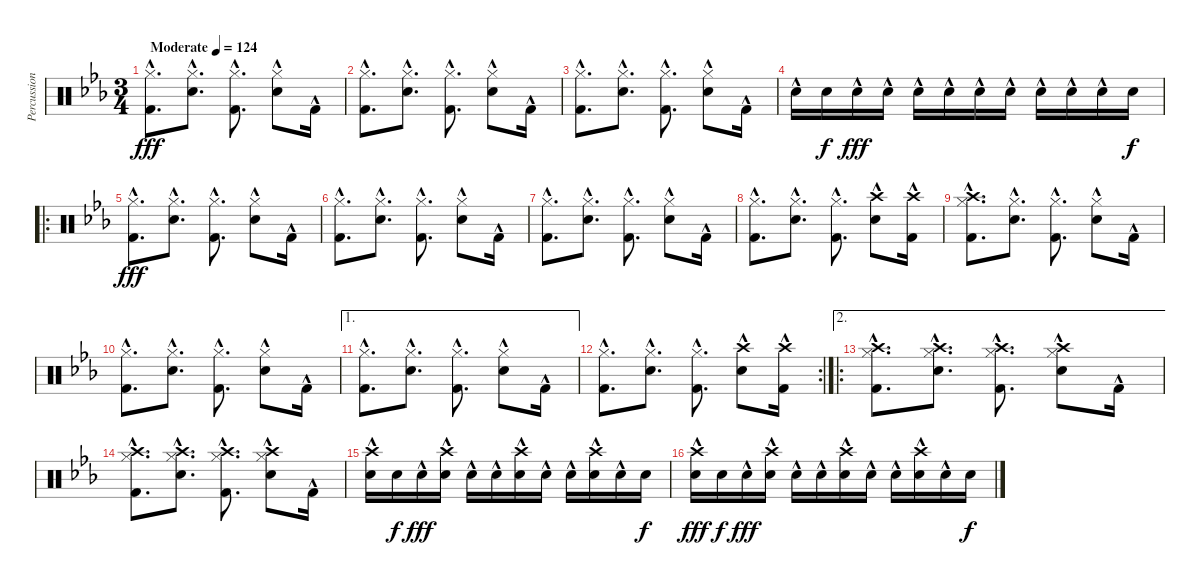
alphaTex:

\track ("Percussion" "Percussion") {instrument percussion}
\staff {score}
\articulation defaults
\ts (3 4)
\tempo (124 "Moderate")
\clef neutral
\ks cminor
("Hi-Hat (closed)" "Kick (hit) 2"{hac}).8{d dy fff} ("Hi-Hat (closed)" "Snare (hit) 2"{hac}).8{d} ("Hi-Hat (closed)" "Kick (hit) 2"{hac}).8{d} ("Hi-Hat (closed)" "Snare (hit) 2"{hac}).8 "Kick (hit) 2"{hac}.16 |
("Hi-Hat (closed)" "Kick (hit) 2"{hac}).8{d} ("Hi-Hat (closed)" "Snare (hit) 2"{hac}).8{d} ("Hi-Hat (closed)" "Kick (hit) 2"{hac}).8{d} ("Hi-Hat (closed)" "Snare (hit) 2"{hac}).8 "Kick (hit) 2"{hac}.16 |
("Hi-Hat (closed)" "Kick (hit) 2"{hac}).8{d} ("Hi-Hat (closed)" "Snare (hit) 2"{hac}).8{d} ("Hi-Hat (closed)" "Kick (hit) 2"{hac}).8{d} ("Hi-Hat (closed)" "Snare (hit) 2"{hac}).8 "Kick (hit) 2"{hac}.16 |
"Snare (hit) 2"{hac}.16 "Snare (hit) 2".16{dy f} "Snare (hit) 2"{hac}.16{dy fff} "Snare (hit) 2"{hac}.16 "Snare (hit) 2"{hac}.16 "Snare (hit) 2"{hac}.16 "Snare (hit) 2"{hac}.16 "Snare (hit) 2"{hac}.16 "Snare (hit) 2"{hac}.16 "Snare (hit) 2"{hac}.16 "Snare (hit) 2"{hac}.16 "Snare (hit) 2".16{dy f} |
\ro
("Hi-Hat (closed)" "Kick (hit) 2"{hac}).8{d dy fff} ("Hi-Hat (closed)" "Snare (hit) 2"{hac}).8{d} ("Hi-Hat (closed)" "Kick (hit) 2"{hac}).8{d} ("Hi-Hat (closed)" "Snare (hit) 2"{hac}).8 "Kick (hit) 2"{hac}.16 |
("Hi-Hat (closed)" "Kick (hit) 2"{hac}).8{d} ("Hi-Hat (closed)" "Snare (hit) 2"{hac}).8{d} ("Hi-Hat (closed)" "Kick (hit) 2"{hac}).8{d} ("Hi-Hat (closed)" "Snare (hit) 2"{hac}).8 "Kick (hit) 2"{hac}.16 |
("Hi-Hat (closed)" "Kick (hit) 2"{hac}).8{d} ("Hi-Hat (closed)" "Snare (hit) 2"{hac}).8{d} ("Hi-Hat (closed)" "Kick (hit) 2"{hac}).8{d} ("Hi-Hat (closed)" "Snare (hit) 2"{hac}).8 "Kick (hit) 2"{hac}.16 |
("Hi-Hat (closed)" "Kick (hit) 2"{hac}).8{d} ("Hi-Hat (closed)" "Snare (hit) 2"{hac}).8{d} ("Hi-Hat (closed)" "Kick (hit) 2"{hac}).8{d} ("Snare (hit) 2"{hac} "Crash high (hit)").8 ("Kick (hit) 2"{hac} "Crash high (hit)").16 |
("Hi-Hat (closed)" "Kick (hit) 2"{hac} "Crash high (hit)").8{d} ("Hi-Hat (closed)" "Snare (hit) 2"{hac}).8{d} ("Hi-Hat (closed)" "Kick (hit) 2"{hac}).8{d} ("Hi-Hat (closed)" "Snare (hit) 2"{hac}).8 "Kick (hit) 2"{hac}.16 |
("Hi-Hat (closed)" "Kick (hit) 2"{hac}).8{d} ("Hi-Hat (closed)" "Snare (hit) 2"{hac}).8{d} ("Hi-Hat (closed)" "Kick (hit) 2"{hac}).8{d} ("Hi-Hat (closed)" "Snare (hit) 2"{hac}).8 "Kick (hit) 2"{hac}.16 |
\ae 1
("Hi-Hat (closed)" "Kick (hit) 2"{hac}).8{d} ("Hi-Hat (closed)" "Snare (hit) 2"{hac}).8{d} ("Hi-Hat (closed)" "Kick (hit) 2"{hac}).8{d} ("Hi-Hat (closed)" "Snare (hit) 2"{hac}).8 "Kick (hit) 2"{hac}.16 |
\rc 2
("Hi-Hat (closed)" "Kick (hit) 2"{hac}).8{d} ("Hi-Hat (closed)" "Snare (hit) 2"{hac}).8{d} ("Hi-Hat (closed)" "Kick (hit) 2"{hac}).8{d} ("Snare (hit) 2"{hac} "Crash high (hit)").8 ("Kick (hit) 2"{hac} "Crash high (hit)").16 |
\ae 2
\ro
("Hi-Hat (closed)" "Kick (hit) 2"{hac} "Crash high (hit)").8{d} ("Hi-Hat (closed)" "Snare (hit) 2"{hac} "Crash high (hit)").8{d} ("Hi-Hat (closed)" "Kick (hit) 2"{hac} "Crash high (hit)").8{d} ("Hi-Hat (closed)" "Snare (hit) 2"{hac} "Crash high (hit)").8 "Kick (hit) 2"{hac}.16 |
("Hi-Hat (closed)" "Kick (hit) 2"{hac} "Crash high (hit)").8{d} ("Hi-Hat (closed)" "Snare (hit) 2"{hac} "Crash high (hit)").8{d} ("Hi-Hat (closed)" "Kick (hit) 2"{hac} "Crash high (hit)").8{d} ("Hi-Hat (closed)" "Snare (hit) 2"{hac} "Crash high (hit)").8 "Kick (hit) 2"{hac}.16 |
("Snare (hit) 2"{hac} "Crash high (hit)").16 "Snare (hit) 2".16{dy f} "Snare (hit) 2"{hac}.16{dy fff} ("Snare (hit) 2"{hac} "Crash high (hit)").16 "Snare (hit) 2"{hac}.16 "Snare (hit) 2"{hac}.16 ("Snare (hit) 2"{hac} "Crash high (hit)").16 "Snare (hit) 2"{hac}.16 "Snare (hit) 2"{hac}.16 ("Snare (hit) 2"{hac} "Crash high (hit)").16 "Snare (hit) 2"{hac}.16 "Snare (hit) 2".16{dy f} |
("Snare (hit) 2"{hac} "Crash high (hit)").16{dy fff} "Snare (hit) 2".16{dy f} "Snare (hit) 2"{hac}.16{dy fff} ("Snare (hit) 2"{hac} "Crash high (hit)").16 "Snare (hit) 2"{hac}.16 "Snare (hit) 2"{hac}.16 ("Snare (hit) 2"{hac} "Crash high (hit)").16 "Snare (hit) 2"{hac}.16 "Snare (hit) 2"{hac}.16 ("Snare (hit) 2"{hac} "Crash high (hit)").16 "Snare (hit) 2"{hac}.16 "Snare (hit) 2".16{dy f}
